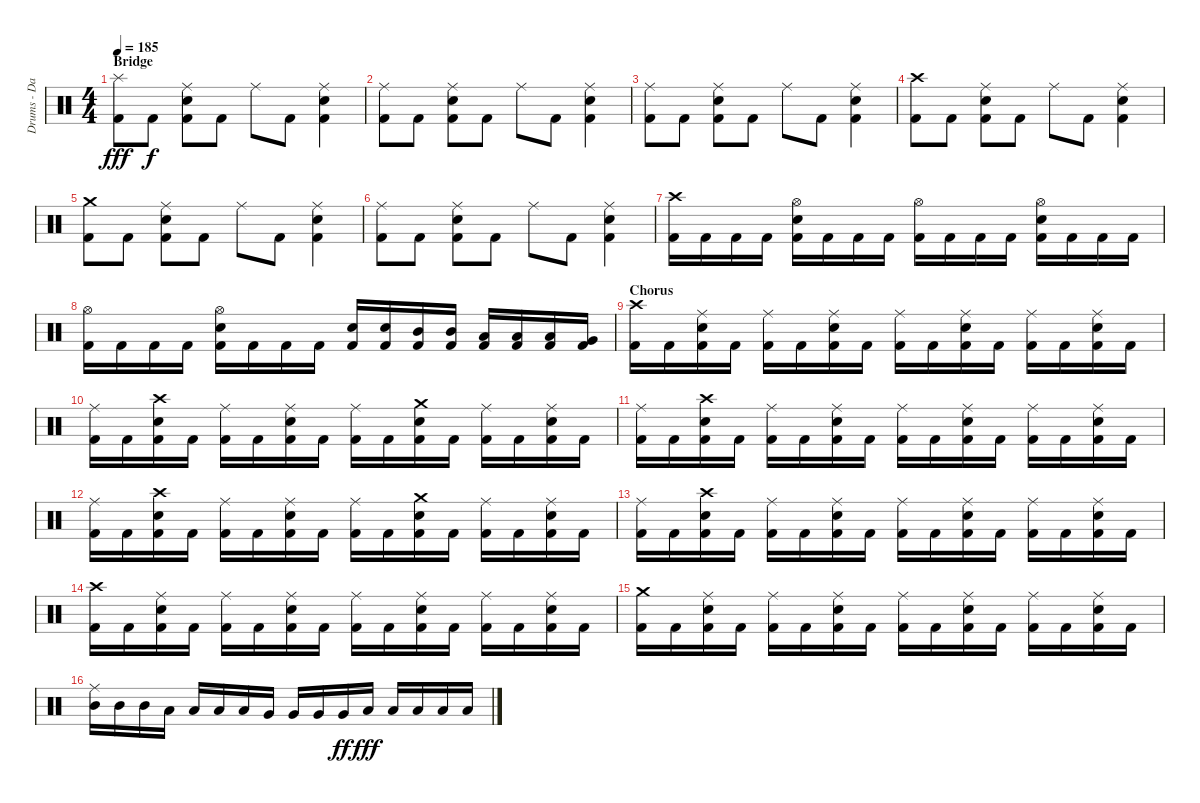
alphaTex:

\track ("Drums - Daniel Zimmermann" "Drums - Da") {instrument percussion}
\staff {score}
\articulation defaults
\ts (4 4)
\section ("" "Bridge")
\tempo 185
\clef neutral
\ks c
("Kick (hit) 2" "Splash (hit)").8{dy fff} "Kick (hit) 2".8{dy f} ("Kick (hit) 2" "Electric Snare (hit)" "Ride (middle)").8 "Kick (hit) 2".8 "Ride (middle)".8 "Kick (hit) 2".8 ("Kick (hit) 2" "Electric Snare (hit)" "Ride (middle)").4 |
("Kick (hit) 2" "Ride (middle)").8 "Kick (hit) 2".8 ("Kick (hit) 2" "Electric Snare (hit)" "Ride (middle)").8 "Kick (hit) 2".8 "Ride (middle)".8 "Kick (hit) 2".8 ("Kick (hit) 2" "Electric Snare (hit)" "Ride (middle)").4 |
("Kick (hit) 2" "Ride (middle)").8 "Kick (hit) 2".8 ("Kick (hit) 2" "Electric Snare (hit)" "Ride (middle)").8 "Kick (hit) 2".8 "Ride (middle)".8 "Kick (hit) 2".8 ("Kick (hit) 2" "Electric Snare (hit)" "Ride (middle)").4 |
("Kick (hit) 2" "Crash high (hit)").8 "Kick (hit) 2".8 ("Kick (hit) 2" "Electric Snare (hit)" "Ride (middle)").8 "Kick (hit) 2".8 "Ride (middle)".8 "Kick (hit) 2".8 ("Kick (hit) 2" "Electric Snare (hit)" "Ride (middle)").4 |
("Kick (hit) 2" "Crash medium (hit)").8 "Kick (hit) 2".8 ("Kick (hit) 2" "Electric Snare (hit)" "Ride (middle)").8 "Kick (hit) 2".8 "Ride (middle)".8 "Kick (hit) 2".8 ("Kick (hit) 2" "Electric Snare (hit)" "Ride (middle)").4 |
("Kick (hit) 2" "Ride (middle)").8 "Kick (hit) 2".8 ("Kick (hit) 2" "Electric Snare (hit)" "Ride (middle)").8 "Kick (hit) 2".8 "Ride (middle)".8 "Kick (hit) 2".8 ("Kick (hit) 2" "Electric Snare (hit)" "Ride (middle)").4 |
("Kick (hit) 2" "Crash high (hit)").16 "Kick (hit) 2".16 "Kick (hit) 2".16 "Kick (hit) 2".16 ("Kick (hit) 2" "Electric Snare (hit)" "Hi-Hat (open)").16 "Kick (hit) 2".16 "Kick (hit) 2".16 "Kick (hit) 2".16 ("Kick (hit) 2" "Hi-Hat (open)").16 "Kick (hit) 2".16 "Kick (hit) 2".16 "Kick (hit) 2".16 ("Kick (hit) 2" "Electric Snare (hit)" "Hi-Hat (open)").16 "Kick (hit) 2".16 "Kick (hit) 2".16 "Kick (hit) 2".16 |
("Kick (hit) 2" "Hi-Hat (open)").16 "Kick (hit) 2".16 "Kick (hit) 2".16 "Kick (hit) 2".16 ("Kick (hit) 2" "Electric Snare (hit)" "Hi-Hat (open)").16 "Kick (hit) 2".16 "Kick (hit) 2".16 "Kick (hit) 2".16 ("Kick (hit) 2" "Electric Snare (hit)").16 ("Kick (hit) 2" "Electric Snare (hit)").16 ("Kick (hit) 2" "Mid Tom (hit)").16 ("Kick (hit) 2" "Mid Tom (hit)").16 ("Kick (hit) 2" "Low Tom (hit)").16 ("Kick (hit) 2" "Low Tom (hit)").16 ("Kick (hit) 2" "Low Tom (hit)").16 ("Kick (hit) 2" "Very Low Tom (hit)").16 |
\section ("" "Chorus")
("Kick (hit) 2" "Crash high (hit)").16 "Kick (hit) 2".16 ("Kick (hit) 2" "Electric Snare (hit)" "Ride (middle)").16 "Kick (hit) 2".16 ("Kick (hit) 2" "Ride (middle)").16 "Kick (hit) 2".16 ("Kick (hit) 2" "Electric Snare (hit)" "Ride (middle)").16 "Kick (hit) 2".16 ("Kick (hit) 2" "Ride (middle)").16 "Kick (hit) 2".16 ("Kick (hit) 2" "Electric Snare (hit)" "Ride (middle)").16 "Kick (hit) 2".16 ("Kick (hit) 2" "Ride (middle)").16 "Kick (hit) 2".16 ("Kick (hit) 2" "Electric Snare (hit)" "Ride (middle)").16 "Kick (hit) 2".16 |
("Kick (hit) 2" "Ride (middle)").16 "Kick (hit) 2".16 ("Kick (hit) 2" "Electric Snare (hit)" "Crash high (hit)").16 "Kick (hit) 2".16 ("Kick (hit) 2" "Ride (middle)").16 "Kick (hit) 2".16 ("Kick (hit) 2" "Electric Snare (hit)" "Ride (middle)").16 "Kick (hit) 2".16 ("Kick (hit) 2" "Ride (middle)").16 "Kick (hit) 2".16 ("Kick (hit) 2" "Electric Snare (hit)" "Crash medium (hit)").16 "Kick (hit) 2".16 ("Kick (hit) 2" "Ride (middle)").16 "Kick (hit) 2".16 ("Kick (hit) 2" "Electric Snare (hit)" "Ride (middle)").16 "Kick (hit) 2".16 |
("Kick (hit) 2" "Ride (middle)").16 "Kick (hit) 2".16 ("Kick (hit) 2" "Electric Snare (hit)" "Crash high (hit)").16 "Kick (hit) 2".16 ("Kick (hit) 2" "Ride (middle)").16 "Kick (hit) 2".16 ("Kick (hit) 2" "Electric Snare (hit)" "Ride (middle)").16 "Kick (hit) 2".16 ("Kick (hit) 2" "Ride (middle)").16 "Kick (hit) 2".16 ("Kick (hit) 2" "Electric Snare (hit)" "Ride (middle)").16 "Kick (hit) 2".16 ("Kick (hit) 2" "Ride (middle)").16 "Kick (hit) 2".16 ("Kick (hit) 2" "Electric Snare (hit)" "Ride (middle)").16 "Kick (hit) 2".16 |
("Kick (hit) 2" "Ride (middle)").16 "Kick (hit) 2".16 ("Kick (hit) 2" "Electric Snare (hit)" "Crash high (hit)").16 "Kick (hit) 2".16 ("Kick (hit) 2" "Ride (middle)").16 "Kick (hit) 2".16 ("Kick (hit) 2" "Electric Snare (hit)" "Ride (middle)").16 "Kick (hit) 2".16 ("Kick (hit) 2" "Ride (middle)").16 "Kick (hit) 2".16 ("Kick (hit) 2" "Electric Snare (hit)" "Crash medium (hit)").16 "Kick (hit) 2".16 ("Kick (hit) 2" "Ride (middle)").16 "Kick (hit) 2".16 ("Kick (hit) 2" "Electric Snare (hit)" "Ride (middle)").16 "Kick (hit) 2".16 |
("Kick (hit) 2" "Ride (middle)").16 "Kick (hit) 2".16 ("Kick (hit) 2" "Electric Snare (hit)" "Crash high (hit)").16 "Kick (hit) 2".16 ("Kick (hit) 2" "Ride (middle)").16 "Kick (hit) 2".16 ("Kick (hit) 2" "Electric Snare (hit)" "Ride (middle)").16 "Kick (hit) 2".16 ("Kick (hit) 2" "Ride (middle)").16 "Kick (hit) 2".16 ("Kick (hit) 2" "Electric Snare (hit)" "Ride (middle)").16 "Kick (hit) 2".16 ("Kick (hit) 2" "Ride (middle)").16 "Kick (hit) 2".16 ("Kick (hit) 2" "Electric Snare (hit)" "Ride (middle)").16 "Kick (hit) 2".16 |
("Kick (hit) 2" "Crash high (hit)").16 "Kick (hit) 2".16 ("Kick (hit) 2" "Electric Snare (hit)" "Ride (middle)").16 "Kick (hit) 2".16 ("Kick (hit) 2" "Ride (middle)").16 "Kick (hit) 2".16 ("Kick (hit) 2" "Electric Snare (hit)" "Ride (middle)").16 "Kick (hit) 2".16 ("Kick (hit) 2" "Ride (middle)").16 "Kick (hit) 2".16 ("Kick (hit) 2" "Electric Snare (hit)" "Ride (middle)").16 "Kick (hit) 2".16 ("Kick (hit) 2" "Ride (middle)").16 "Kick (hit) 2".16 ("Kick (hit) 2" "Electric Snare (hit)" "Ride (middle)").16 "Kick (hit) 2".16 |
("Kick (hit) 2" "Crash medium (hit)").16 "Kick (hit) 2".16 ("Kick (hit) 2" "Electric Snare (hit)" "Ride (middle)").16 "Kick (hit) 2".16 ("Kick (hit) 2" "Ride (middle)").16 "Kick (hit) 2".16 ("Kick (hit) 2" "Electric Snare (hit)" "Ride (middle)").16 "Kick (hit) 2".16 ("Kick (hit) 2" "Ride (middle)").16 "Kick (hit) 2".16 ("Kick (hit) 2" "Electric Snare (hit)" "Ride (middle)").16 "Kick (hit) 2".16 ("Kick (hit) 2" "Ride (middle)").16 "Kick (hit) 2".16 ("Kick (hit) 2" "Electric Snare (hit)" "Ride (middle)").16 "Kick (hit) 2".16 |
("Mid Tom (hit)" "Ride (middle)").16 "Mid Tom (hit)".16 "Mid Tom (hit)".16 "Low Tom (hit)".16 "Low Tom (hit)".16 "Low Tom (hit)".16 "Low Tom (hit)".16 "Very Low Tom (hit)".16 "Very Low Tom (hit)".16 "Very Low Tom (hit)".16 "Very Low Tom (hit)".16{dy ff} "Low Floor Tom (hit)".16{dy fff} "Low Floor Tom (hit)".16 "Low Floor Tom (hit)".16 "Low Floor Tom (hit)".16 "Low Floor Tom (hit)".16
